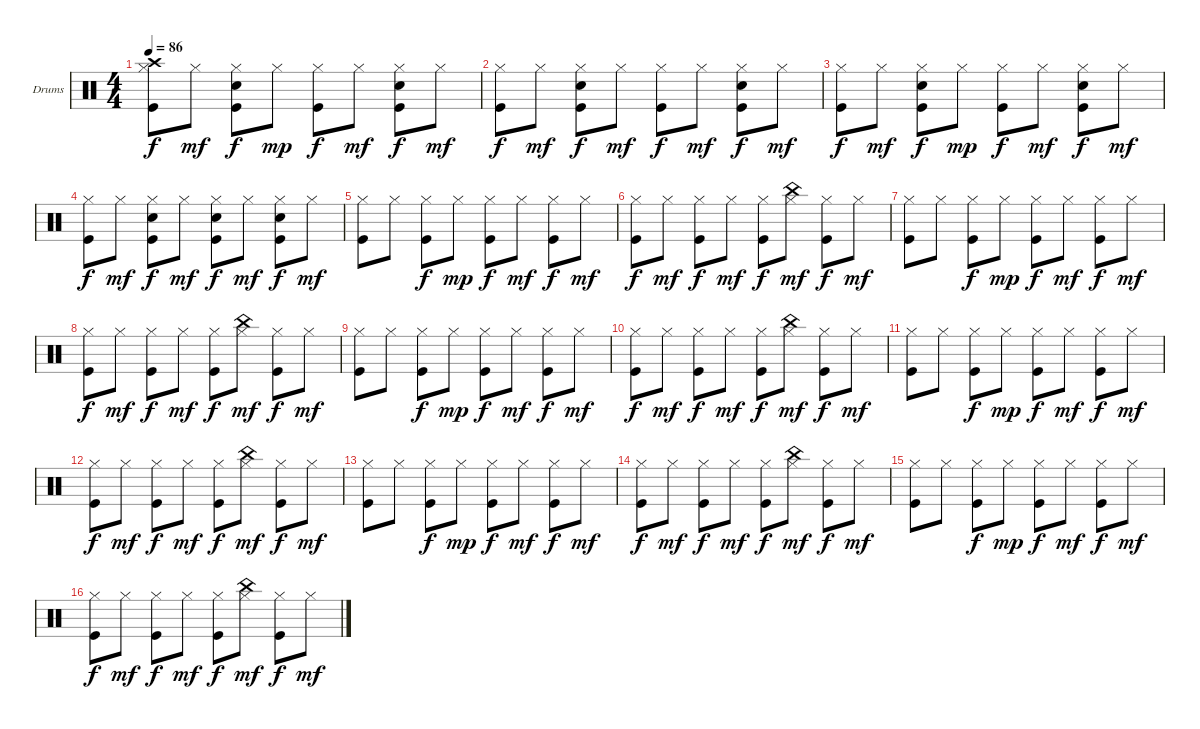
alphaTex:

\bracketExtendMode groupsimilarinstruments
\firstSystemTrackNameOrientation horizontal
\otherSystemsTrackNameOrientation horizontal
\track ("Ударные" "Drums") {instrument percussion}
\staff {score}
\articulation defaults
\ts (4 4)
\tempo 86
\clef neutral
\ks c
("Hi-Hat (closed)" "Crash high (hit)" "Kick (hit)").8{dy f} "Hi-Hat (closed)".8{dy mf} ("Snare (hit) 2" "Hi-Hat (closed)" "Kick (hit)").8{dy f} "Hi-Hat (closed)".8{dy mp} ("Hi-Hat (closed)" "Kick (hit)").8{dy f} "Hi-Hat (closed)".8{dy mf} ("Snare (hit) 2" "Hi-Hat (closed)" "Kick (hit)").8{dy f} "Hi-Hat (closed)".8{dy mf} |
("Hi-Hat (closed)" "Kick (hit)").8{dy f} "Hi-Hat (closed)".8{dy mf} ("Snare (hit) 2" "Hi-Hat (closed)" "Kick (hit)").8{dy f} "Hi-Hat (closed)".8{dy mf} ("Hi-Hat (closed)" "Kick (hit)").8{dy f} "Hi-Hat (closed)".8{dy mf} ("Snare (hit) 2" "Hi-Hat (closed)" "Kick (hit)").8{dy f} "Hi-Hat (closed)".8{dy mf} |
("Hi-Hat (closed)" "Kick (hit)").8{dy f} "Hi-Hat (closed)".8{dy mf} ("Snare (hit) 2" "Hi-Hat (closed)" "Kick (hit)").8{dy f} "Hi-Hat (closed)".8{dy mp} ("Hi-Hat (closed)" "Kick (hit)").8{dy f} "Hi-Hat (closed)".8{dy mf} ("Snare (hit) 2" "Hi-Hat (closed)" "Kick (hit)").8{dy f} "Hi-Hat (closed)".8{dy mf} |
("Hi-Hat (closed)" "Kick (hit)").8{dy f} "Hi-Hat (closed)".8{dy mf} ("Snare (hit) 2" "Hi-Hat (closed)" "Kick (hit)").8{dy f} "Hi-Hat (closed)".8{dy mf} ("Hi-Hat (closed)" "Kick (hit)" "Snare (hit) 2").8{dy f} "Hi-Hat (closed)".8{dy mf} ("Snare (hit) 2" "Hi-Hat (closed)" "Kick (hit)").8{dy f} "Hi-Hat (closed)".8{dy mf} |
("Hi-Hat (closed)" "Kick (hit)").8 "Hi-Hat (closed)".8 ("Hi-Hat (closed)" "Kick (hit)").8{dy f} "Hi-Hat (closed)".8{dy mp} ("Hi-Hat (closed)" "Kick (hit)").8{dy f} "Hi-Hat (closed)".8{dy mf} ("Hi-Hat (closed)" "Kick (hit)").8{dy f} "Hi-Hat (closed)".8{dy mf} |
("Hi-Hat (closed)" "Kick (hit)").8{dy f} "Hi-Hat (closed)".8{dy mf} ("Hi-Hat (closed)" "Kick (hit)").8{dy f} "Hi-Hat (closed)".8{dy mf} ("Hi-Hat (closed)" "Kick (hit)").8{dy f} ("Hi-Hat (closed)" "China (hit)").8{dy mf} ("Hi-Hat (closed)" "Kick (hit)").8{dy f} "Hi-Hat (closed)".8{dy mf} |
("Hi-Hat (closed)" "Kick (hit)").8 "Hi-Hat (closed)".8 ("Hi-Hat (closed)" "Kick (hit)").8{dy f} "Hi-Hat (closed)".8{dy mp} ("Hi-Hat (closed)" "Kick (hit)").8{dy f} "Hi-Hat (closed)".8{dy mf} ("Hi-Hat (closed)" "Kick (hit)").8{dy f} "Hi-Hat (closed)".8{dy mf} |
("Hi-Hat (closed)" "Kick (hit)").8{dy f} "Hi-Hat (closed)".8{dy mf} ("Hi-Hat (closed)" "Kick (hit)").8{dy f} "Hi-Hat (closed)".8{dy mf} ("Hi-Hat (closed)" "Kick (hit)").8{dy f} ("Hi-Hat (closed)" "China (hit)").8{dy mf} ("Hi-Hat (closed)" "Kick (hit)").8{dy f} "Hi-Hat (closed)".8{dy mf} |
("Hi-Hat (closed)" "Kick (hit)").8 "Hi-Hat (closed)".8 ("Hi-Hat (closed)" "Kick (hit)").8{dy f} "Hi-Hat (closed)".8{dy mp} ("Hi-Hat (closed)" "Kick (hit)").8{dy f} "Hi-Hat (closed)".8{dy mf} ("Hi-Hat (closed)" "Kick (hit)").8{dy f} "Hi-Hat (closed)".8{dy mf} |
("Hi-Hat (closed)" "Kick (hit)").8{dy f} "Hi-Hat (closed)".8{dy mf} ("Hi-Hat (closed)" "Kick (hit)").8{dy f} "Hi-Hat (closed)".8{dy mf} ("Hi-Hat (closed)" "Kick (hit)").8{dy f} ("Hi-Hat (closed)" "China (hit)").8{dy mf} ("Hi-Hat (closed)" "Kick (hit)").8{dy f} "Hi-Hat (closed)".8{dy mf} |
("Hi-Hat (closed)" "Kick (hit)").8 "Hi-Hat (closed)".8 ("Hi-Hat (closed)" "Kick (hit)").8{dy f} "Hi-Hat (closed)".8{dy mp} ("Hi-Hat (closed)" "Kick (hit)").8{dy f} "Hi-Hat (closed)".8{dy mf} ("Hi-Hat (closed)" "Kick (hit)").8{dy f} "Hi-Hat (closed)".8{dy mf} |
("Hi-Hat (closed)" "Kick (hit)").8{dy f} "Hi-Hat (closed)".8{dy mf} ("Hi-Hat (closed)" "Kick (hit)").8{dy f} "Hi-Hat (closed)".8{dy mf} ("Hi-Hat (closed)" "Kick (hit)").8{dy f} ("Hi-Hat (closed)" "China (hit)").8{dy mf} ("Hi-Hat (closed)" "Kick (hit)").8{dy f} "Hi-Hat (closed)".8{dy mf} |
("Hi-Hat (closed)" "Kick (hit)").8 "Hi-Hat (closed)".8 ("Hi-Hat (closed)" "Kick (hit)").8{dy f} "Hi-Hat (closed)".8{dy mp} ("Hi-Hat (closed)" "Kick (hit)").8{dy f} "Hi-Hat (closed)".8{dy mf} ("Hi-Hat (closed)" "Kick (hit)").8{dy f} "Hi-Hat (closed)".8{dy mf} |
("Hi-Hat (closed)" "Kick (hit)").8{dy f} "Hi-Hat (closed)".8{dy mf} ("Hi-Hat (closed)" "Kick (hit)").8{dy f} "Hi-Hat (closed)".8{dy mf} ("Hi-Hat (closed)" "Kick (hit)").8{dy f} ("Hi-Hat (closed)" "China (hit)").8{dy mf} ("Hi-Hat (closed)" "Kick (hit)").8{dy f} "Hi-Hat (closed)".8{dy mf} |
("Hi-Hat (closed)" "Kick (hit)").8 "Hi-Hat (closed)".8 ("Hi-Hat (closed)" "Kick (hit)").8{dy f} "Hi-Hat (closed)".8{dy mp} ("Hi-Hat (closed)" "Kick (hit)").8{dy f} "Hi-Hat (closed)".8{dy mf} ("Hi-Hat (closed)" "Kick (hit)").8{dy f} "Hi-Hat (closed)".8{dy mf} |
("Hi-Hat (closed)" "Kick (hit)").8{dy f} "Hi-Hat (closed)".8{dy mf} ("Hi-Hat (closed)" "Kick (hit)").8{dy f} "Hi-Hat (closed)".8{dy mf} ("Hi-Hat (closed)" "Kick (hit)").8{dy f} ("Hi-Hat (closed)" "China (hit)").8{dy mf} ("Hi-Hat (closed)" "Kick (hit)").8{dy f} "Hi-Hat (closed)".8{dy mf}
